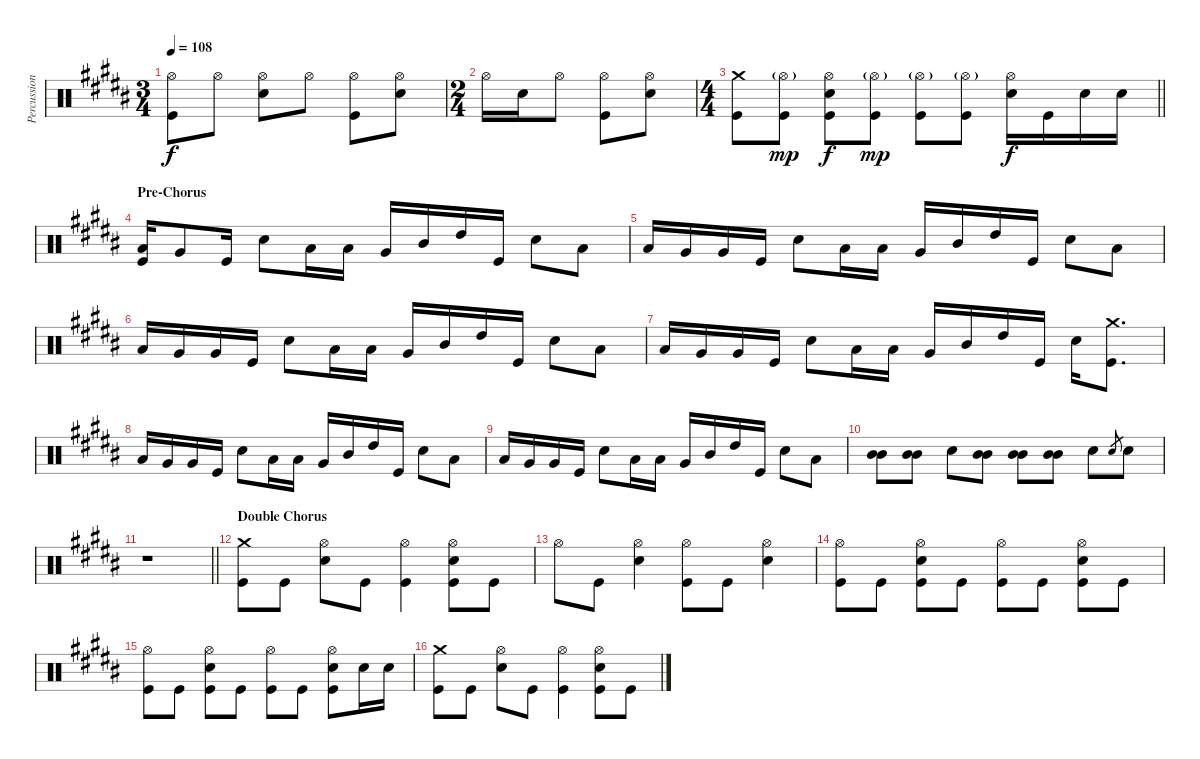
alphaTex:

\track ("Percussion" "Percussion") {instrument percussion}
\staff {score}
\articulation defaults
\ts (3 4)
\tempo 108
\clef neutral
\ks b
("Hi-Hat (open)" "Kick (hit)").8{dy f} "Hi-Hat (open)".8 ("Hi-Hat (open)" "Electric Snare (hit)").8 "Hi-Hat (open)".8 ("Hi-Hat (open)" "Kick (hit)").8 ("Hi-Hat (open)" "Electric Snare (hit)").8 |
\ts (2 4)
"Hi-Hat (open)".16 "Electric Snare (hit)".16 "Hi-Hat (open)".8 ("Hi-Hat (open)" "Kick (hit)").8 ("Hi-Hat (open)" "Electric Snare (hit)").8 |
\ts (4 4)
\barLineRight lightlight
("Crash medium (hit)" "Kick (hit)").8 ("Hi-Hat (open)"{g} "Kick (hit)").8{dy mp} ("Hi-Hat (open)" "Electric Snare (hit)" "Kick (hit)").8{dy f} ("Hi-Hat (open)"{g} "Kick (hit)").8{dy mp} ("Hi-Hat (open)"{g} "Kick (hit)").8 ("Hi-Hat (open)"{g} "Kick (hit)").8 ("Hi-Hat (open)" "Electric Snare (hit)").16{dy f} "Kick (hit)".16 "Electric Snare (hit)".16 "Electric Snare (hit)".16 |
\section ("" "Pre-Chorus")
("Low Tom (hit)" "Kick (hit)").16 "Very Low Tom (hit)".8 "Kick (hit)".16 "Electric Snare (hit)".8 "Low Tom (hit)".16 "Low Tom (hit)".16 "Very Low Tom (hit)".16 "Mid Tom (hit)".16 "High Tom (hit)".16 "Kick (hit)".16 "Electric Snare (hit)".8 "Low Tom (hit)".8 |
"Low Tom (hit)".16 "Very Low Tom (hit)".16 "Very Low Tom (hit)".16 "Kick (hit)".16 "Electric Snare (hit)".8 "Low Tom (hit)".16 "Low Tom (hit)".16 "Very Low Tom (hit)".16 "Mid Tom (hit)".16 "High Tom (hit)".16 "Kick (hit)".16 "Electric Snare (hit)".8 "Low Tom (hit)".8 |
"Low Tom (hit)".16 "Very Low Tom (hit)".16 "Very Low Tom (hit)".16 "Kick (hit)".16 "Electric Snare (hit)".8 "Low Tom (hit)".16 "Low Tom (hit)".16 "Very Low Tom (hit)".16 "Mid Tom (hit)".16 "High Tom (hit)".16 "Kick (hit)".16 "Electric Snare (hit)".8 "Low Tom (hit)".8 |
"Low Tom (hit)".16 "Very Low Tom (hit)".16 "Very Low Tom (hit)".16 "Kick (hit)".16 "Electric Snare (hit)".8 "Low Tom (hit)".16 "Low Tom (hit)".16 "Very Low Tom (hit)".16 "Mid Tom (hit)".16 "High Tom (hit)".16 "Kick (hit)".16 "Electric Snare (hit)".16 ("Crash medium (hit)" "Kick (hit)").8{d} |
"Low Tom (hit)".16 "Very Low Tom (hit)".16 "Very Low Tom (hit)".16 "Kick (hit)".16 "Electric Snare (hit)".8 "Low Tom (hit)".16 "Low Tom (hit)".16 "Very Low Tom (hit)".16 "Mid Tom (hit)".16 "High Tom (hit)".16 "Kick (hit)".16 "Electric Snare (hit)".8 "Low Tom (hit)".8 |
"Low Tom (hit)".16 "Very Low Tom (hit)".16 "Very Low Tom (hit)".16 "Kick (hit)".16 "Electric Snare (hit)".8 "Low Tom (hit)".16 "Low Tom (hit)".16 "Very Low Tom (hit)".16 "Mid Tom (hit)".16 "High Tom (hit)".16 "Kick (hit)".16 "Electric Snare (hit)".8 "Low Tom (hit)".8 |
("Mid Tom (hit)" "Mid Tom (hit)").8 ("Mid Tom (hit)" "Mid Tom (hit)").8 "Electric Snare (hit)".8 ("Mid Tom (hit)" "Mid Tom (hit)").8 ("Mid Tom (hit)" "Mid Tom (hit)").8 ("Mid Tom (hit)" "Mid Tom (hit)").8 "Electric Snare (hit)".8 "Electric Snare (hit)".8{gr} "Electric Snare (hit)".8 |
\barLineRight lightlight
r.1 |
\section ("" "Double Chorus")
("Crash medium (hit)" "Kick (hit)").8 "Kick (hit)".8 ("Hi-Hat (open)" "Electric Snare (hit)").8 "Kick (hit)".8 ("Hi-Hat (open)" "Kick (hit)").4 ("Hi-Hat (open)" "Electric Snare (hit)" "Kick (hit)").8 "Kick (hit)".8 |
"Hi-Hat (open)".8 "Kick (hit)".8 ("Hi-Hat (open)" "Electric Snare (hit)").4 ("Hi-Hat (open)" "Kick (hit)").8 "Kick (hit)".8 ("Hi-Hat (open)" "Electric Snare (hit)").4 |
("Hi-Hat (open)" "Kick (hit)").8 "Kick (hit)".8 ("Hi-Hat (open)" "Electric Snare (hit)" "Kick (hit)").8 "Kick (hit)".8 ("Hi-Hat (open)" "Kick (hit)").8 "Kick (hit)".8 ("Hi-Hat (open)" "Electric Snare (hit)" "Kick (hit)").8 "Kick (hit)".8 |
("Hi-Hat (open)" "Kick (hit)").8 "Kick (hit)".8 ("Hi-Hat (open)" "Electric Snare (hit)" "Kick (hit)").8 "Kick (hit)".8 ("Hi-Hat (open)" "Kick (hit)").8 "Kick (hit)".8 ("Hi-Hat (open)" "Electric Snare (hit)" "Kick (hit)").8 "Electric Snare (hit)".16 "Electric Snare (hit)".16 |
("Crash medium (hit)" "Kick (hit)").8 "Kick (hit)".8 ("Hi-Hat (open)" "Electric Snare (hit)").8 "Kick (hit)".8 ("Hi-Hat (open)" "Kick (hit)").4 ("Hi-Hat (open)" "Electric Snare (hit)" "Kick (hit)").8 "Kick (hit)".8
